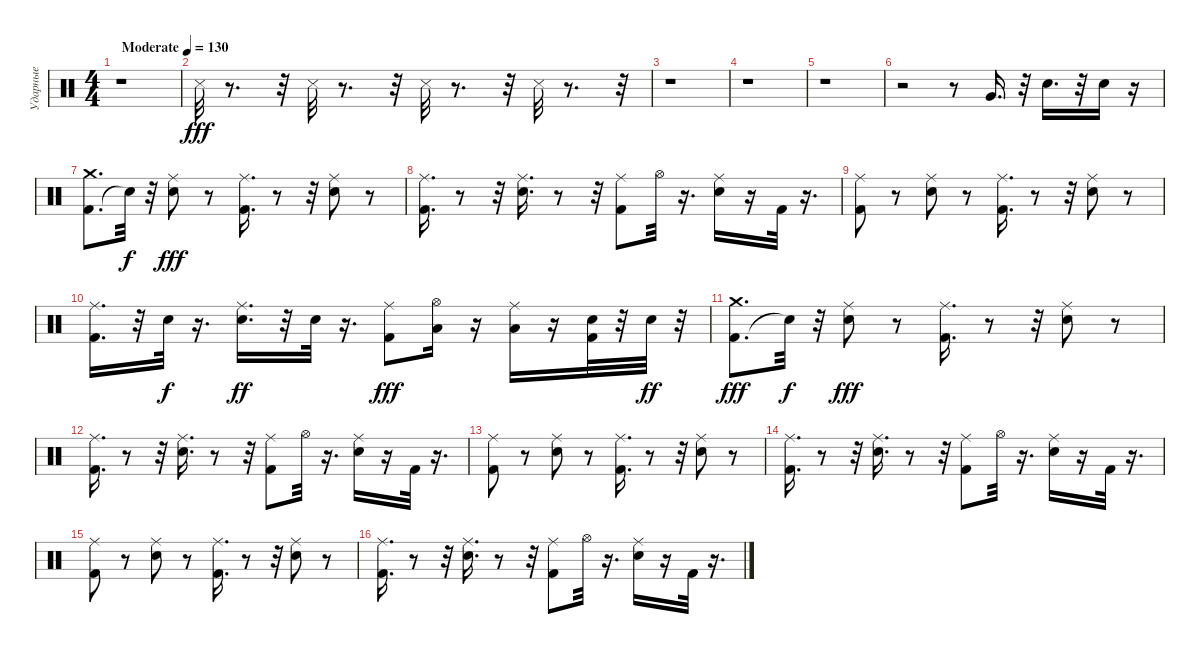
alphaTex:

\track ("Ударные" "Ударные") {instrument percussion}
\staff {score}
\articulation defaults
\ts (4 4)
\tempo (130 "Moderate")
\clef neutral
\ks c
r.1{dy fff} |
"Snare (side stick) 3".32 r.8{d} r.32 "Snare (side stick) 3".32 r.8{d} r.32 "Snare (side stick) 3".32 r.8{d} r.32 "Snare (side stick) 3".32 r.8{d} r.32 |
r.1 |
r.1 |
r.1 |
r.2 r.8 "Very Low Tom (hit)".16{d} r.32 "Electric Snare (hit)".16{d} r.32 "Electric Snare (hit)".16 r.16 |
("Kick (hit) 2" "Crash medium (hit)").8{d} "Snare (hit)"{t}.32{dy f} r.32 ("Electric Snare (hit)" "Ride (middle)").8{dy fff} r.8 ("Kick (hit) 2" "Ride (middle)").16{d} r.8 r.32 ("Electric Snare (hit)" "Ride (middle)").8 r.8 |
("Ride (middle)" "Kick (hit) 2").16{d} r.8 r.32 ("Electric Snare (hit)" "Ride (middle)").16{d} r.8 r.32 ("Kick (hit) 2" "Ride (middle)").8 "Hi-Hat (open)".32 r.16{d} ("Electric Snare (hit)" "Ride (middle)").16 r.16 "Kick (hit) 2".32 r.16{d} |
("Kick (hit) 2" "Ride (middle)").8 r.8 ("Electric Snare (hit)" "Ride (middle)").8 r.8 ("Kick (hit) 2" "Ride (middle)").16{d} r.8 r.32 ("Electric Snare (hit)" "Ride (middle)").8 r.8 |
("Ride (middle)" "Kick (hit) 2").16{d} r.32 "Electric Snare (hit)".32{dy f} r.16{d} ("Ride (middle)" "Electric Snare (hit)").16{d dy ff} r.32 "Electric Snare (hit)".32 r.16{d} ("Kick (hit) 2" "Ride (middle)").8{dy fff} ("Low Tom (hit)" "Hi-Hat (open)").16 r.16 ("Low Tom (hit)" "Ride (middle)").16 r.16 ("Kick (hit) 2" "Snare (hit) 2").32 r.32 "Snare (hit) 2".32{dy ff} r.32 |
("Kick (hit) 2" "Crash medium (hit)").8{d dy fff} "Snare (hit)"{t}.32{dy f} r.32 ("Electric Snare (hit)" "Ride (middle)").8{dy fff} r.8 ("Kick (hit) 2" "Ride (middle)").16{d} r.8 r.32 ("Electric Snare (hit)" "Ride (middle)").8 r.8 |
("Ride (middle)" "Kick (hit) 2").16{d} r.8 r.32 ("Electric Snare (hit)" "Ride (middle)").16{d} r.8 r.32 ("Kick (hit) 2" "Ride (middle)").8 "Hi-Hat (open)".32 r.16{d} ("Electric Snare (hit)" "Ride (middle)").16 r.16 "Kick (hit) 2".32 r.16{d} |
("Kick (hit) 2" "Ride (middle)").8 r.8 ("Electric Snare (hit)" "Ride (middle)").8 r.8 ("Kick (hit) 2" "Ride (middle)").16{d} r.8 r.32 ("Electric Snare (hit)" "Ride (middle)").8 r.8 |
("Ride (middle)" "Kick (hit) 2").16{d} r.8 r.32 ("Electric Snare (hit)" "Ride (middle)").16{d} r.8 r.32 ("Kick (hit) 2" "Ride (middle)").8 "Hi-Hat (open)".32 r.16{d} ("Electric Snare (hit)" "Ride (middle)").16 r.16 "Kick (hit) 2".32 r.16{d} |
("Kick (hit) 2" "Ride (middle)").8 r.8 ("Electric Snare (hit)" "Ride (middle)").8 r.8 ("Kick (hit) 2" "Ride (middle)").16{d} r.8 r.32 ("Electric Snare (hit)" "Ride (middle)").8 r.8 |
("Ride (middle)" "Kick (hit) 2").16{d} r.8 r.32 ("Electric Snare (hit)" "Ride (middle)").16{d} r.8 r.32 ("Kick (hit) 2" "Ride (middle)").8 "Hi-Hat (open)".32 r.16{d} ("Electric Snare (hit)" "Ride (middle)").16 r.16 "Kick (hit) 2".32 r.16{d}
